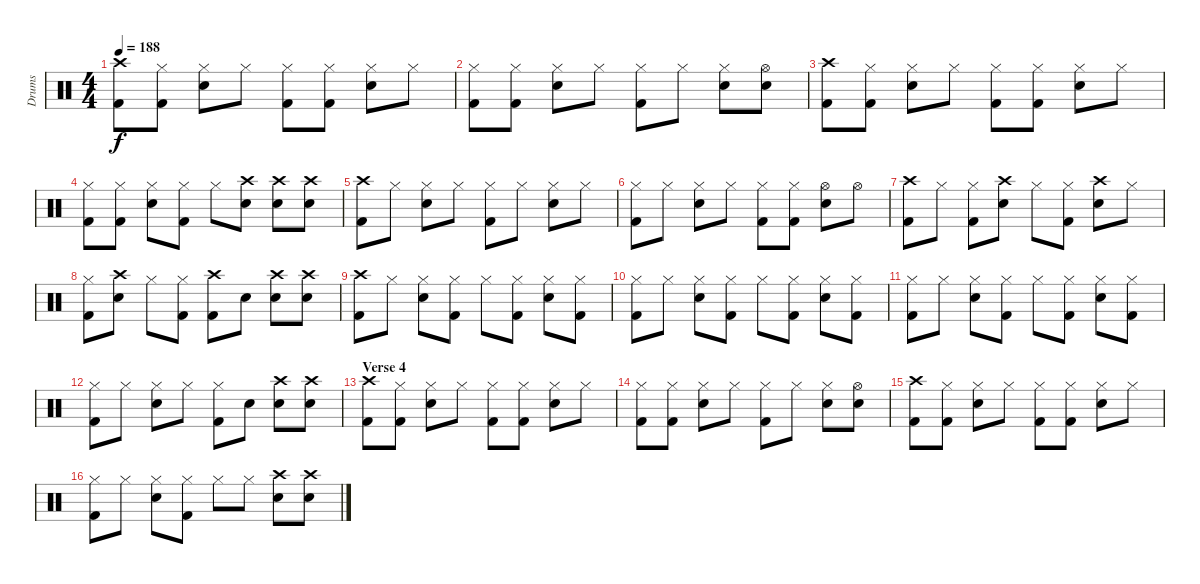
\track ("Drums" "Drums") {instrument percussion}
\staff {score}
\articulation defaults
\ts (4 4)
\tempo 188
\clef neutral
\ks c
("Crash high (hit)" "Kick (hit) 2").8{dy f} ("Hi-Hat (closed)" "Kick (hit) 2").8 ("Hi-Hat (closed)" "Snare (hit) 2").8 "Hi-Hat (closed)".8 ("Hi-Hat (closed)" "Kick (hit) 2").8 ("Hi-Hat (closed)" "Kick (hit) 2").8 ("Hi-Hat (closed)" "Snare (hit) 2").8 "Hi-Hat (closed)".8 |
("Hi-Hat (closed)" "Kick (hit) 2").8 ("Hi-Hat (closed)" "Kick (hit) 2").8 ("Hi-Hat (closed)" "Snare (hit) 2").8 "Hi-Hat (closed)".8 ("Hi-Hat (closed)" "Kick (hit) 2").8 "Hi-Hat (closed)".8 ("Hi-Hat (closed)" "Snare (hit) 2").8 ("Hi-Hat (open)" "Snare (hit) 2").8 |
("Crash high (hit)" "Kick (hit) 2").8 ("Hi-Hat (closed)" "Kick (hit) 2").8 ("Hi-Hat (closed)" "Snare (hit) 2").8 "Hi-Hat (closed)".8 ("Hi-Hat (closed)" "Kick (hit) 2").8 ("Hi-Hat (closed)" "Kick (hit) 2").8 ("Hi-Hat (closed)" "Snare (hit) 2").8 "Hi-Hat (closed)".8 |
("Hi-Hat (closed)" "Kick (hit) 2").8 ("Hi-Hat (closed)" "Kick (hit) 2").8 ("Hi-Hat (closed)" "Snare (hit) 2").8 ("Hi-Hat (closed)" "Kick (hit) 2").8 "Hi-Hat (closed)".8 ("Crash high (hit)" "Snare (hit) 2").8 ("Crash high (hit)" "Snare (hit) 2").8 ("Crash high (hit)" "Snare (hit) 2").8 |
("Crash high (hit)" "Kick (hit) 2").8 "Hi-Hat (closed)".8 ("Hi-Hat (closed)" "Snare (hit) 2").8 "Hi-Hat (closed)".8 ("Hi-Hat (closed)" "Kick (hit) 2").8 "Hi-Hat (closed)".8 ("Hi-Hat (closed)" "Snare (hit) 2").8 "Hi-Hat (closed)".8 |
("Hi-Hat (closed)" "Kick (hit) 2").8 "Hi-Hat (closed)".8 ("Hi-Hat (closed)" "Snare (hit) 2").8 "Hi-Hat (closed)".8 ("Hi-Hat (closed)" "Kick (hit) 2").8 ("Hi-Hat (closed)" "Kick (hit) 2").8 ("Hi-Hat (open)" "Snare (hit) 2").8 "Hi-Hat (open)".8 |
("Crash high (hit)" "Kick (hit) 2").8 "Hi-Hat (closed)".8 ("Hi-Hat (closed)" "Kick (hit) 2").8 ("Crash high (hit)" "Snare (hit) 2").8 "Hi-Hat (closed)".8 ("Hi-Hat (closed)" "Kick (hit) 2").8 ("Crash high (hit)" "Snare (hit) 2").8 "Hi-Hat (closed)".8 |
("Hi-Hat (closed)" "Kick (hit) 2").8 ("Crash high (hit)" "Snare (hit) 2").8 "Hi-Hat (closed)".8 ("Hi-Hat (closed)" "Kick (hit) 2").8 ("Crash high (hit)" "Kick (hit) 2").8 "Snare (hit) 2".8 ("Crash high (hit)" "Snare (hit) 2").8 ("Crash high (hit)" "Snare (hit) 2").8 |
("Crash high (hit)" "Kick (hit) 2").8 "Hi-Hat (closed)".8 ("Hi-Hat (closed)" "Snare (hit) 2").8 ("Hi-Hat (closed)" "Kick (hit) 2").8 "Hi-Hat (closed)".8 ("Hi-Hat (closed)" "Kick (hit) 2").8 ("Hi-Hat (closed)" "Snare (hit) 2").8 ("Hi-Hat (closed)" "Kick (hit) 2").8 |
("Hi-Hat (closed)" "Kick (hit) 2").8 "Hi-Hat (closed)".8 ("Hi-Hat (closed)" "Snare (hit) 2").8 ("Hi-Hat (closed)" "Kick (hit) 2").8 "Hi-Hat (closed)".8 ("Hi-Hat (closed)" "Kick (hit) 2").8 ("Hi-Hat (closed)" "Snare (hit) 2").8 ("Hi-Hat (closed)" "Kick (hit) 2").8 |
("Hi-Hat (closed)" "Kick (hit) 2").8 "Hi-Hat (closed)".8 ("Hi-Hat (closed)" "Snare (hit) 2").8 ("Hi-Hat (closed)" "Kick (hit) 2").8 "Hi-Hat (closed)".8 ("Hi-Hat (closed)" "Kick (hit) 2").8 ("Hi-Hat (closed)" "Snare (hit) 2").8 ("Hi-Hat (closed)" "Kick (hit) 2").8 |
("Hi-Hat (closed)" "Kick (hit) 2").8 "Hi-Hat (closed)".8 ("Hi-Hat (closed)" "Snare (hit) 2").8 "Hi-Hat (closed)".8 ("Hi-Hat (closed)" "Kick (hit) 2").8 "Snare (hit) 2".8 ("Crash high (hit)" "Snare (hit) 2").8 ("Crash high (hit)" "Snare (hit) 2").8 |
\section ("" "Verse 4")
("Crash high (hit)" "Kick (hit) 2").8 ("Hi-Hat (closed)" "Kick (hit) 2").8 ("Hi-Hat (closed)" "Snare (hit) 2").8 "Hi-Hat (closed)".8 ("Hi-Hat (closed)" "Kick (hit) 2").8 ("Hi-Hat (closed)" "Kick (hit) 2").8 ("Hi-Hat (closed)" "Snare (hit) 2").8 "Hi-Hat (closed)".8 |
("Hi-Hat (closed)" "Kick (hit) 2").8 ("Hi-Hat (closed)" "Kick (hit) 2").8 ("Hi-Hat (closed)" "Snare (hit) 2").8 "Hi-Hat (closed)".8 ("Hi-Hat (closed)" "Kick (hit) 2").8 "Hi-Hat (closed)".8 ("Hi-Hat (closed)" "Snare (hit) 2").8 ("Hi-Hat (open)" "Snare (hit) 2").8 |
("Crash high (hit)" "Kick (hit) 2").8 ("Hi-Hat (closed)" "Kick (hit) 2").8 ("Hi-Hat (closed)" "Snare (hit) 2").8 "Hi-Hat (closed)".8 ("Hi-Hat (closed)" "Kick (hit) 2").8 ("Hi-Hat (closed)" "Kick (hit) 2").8 ("Hi-Hat (closed)" "Snare (hit) 2").8 "Hi-Hat (closed)".8 |
("Hi-Hat (closed)" "Kick (hit) 2").8 "Hi-Hat (closed)".8 ("Hi-Hat (closed)" "Snare (hit) 2").8 ("Hi-Hat (closed)" "Kick (hit) 2").8 "Hi-Hat (closed)".8 "Hi-Hat (closed)".8 ("Crash high (hit)" "Snare (hit) 2").8 ("Crash high (hit)" "Snare (hit) 2").8
